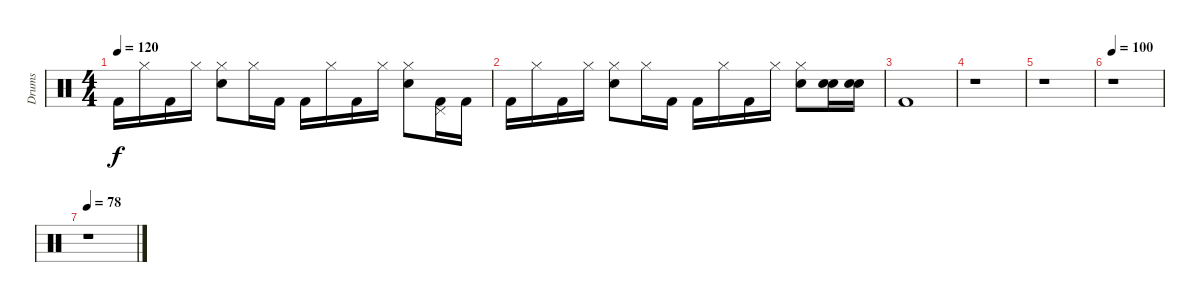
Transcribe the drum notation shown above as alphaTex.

\track ("Drums" "Drums") {instrument percussion}
\staff {score}
\articulation defaults
\ts (4 4)
\tempo 120
\clef neutral
\ks c "Kick (hit) 2".16{dy f} "Hi-Hat (closed)".16 "Kick (hit) 2".16 "Hi-Hat (closed)".16
("Hi-Hat (closed)" "Snare (hit) 2").8 "Hi-Hat (closed)".16 "Kick (hit) 2".16 "Kick (hit) 2".16 "Hi-Hat (closed)".16 "Kick (hit) 2".16 "Hi-Hat (closed)".16 ("Hi-Hat (closed)" "Snare (hit) 2").8 ("Pedal Hi-Hat (hit)" "Kick (hit) 2").16 "Kick (hit) 2".16 |
"Kick (hit) 2".16 "Hi-Hat (closed)".16 "Kick (hit) 2".16 "Hi-Hat (closed)".16 ("Hi-Hat (closed)" "Snare (hit) 2").8 "Hi-Hat (closed)".16 "Kick (hit) 2".16 "Kick (hit) 2".16 "Hi-Hat (closed)".16 "Kick (hit) 2".16 "Hi-Hat (closed)".16 ("Hi-Hat (closed)" "Snare (hit) 2").8 ("Snare (hit) 2" "Electric Snare (hit)").16 ("Snare (hit) 2" "Electric Snare (hit)").16 |
"Kick (hit) 2".1 |
r.1 |
r.1 |
\tempo 100
r.1 |
\tempo 78
r.1
